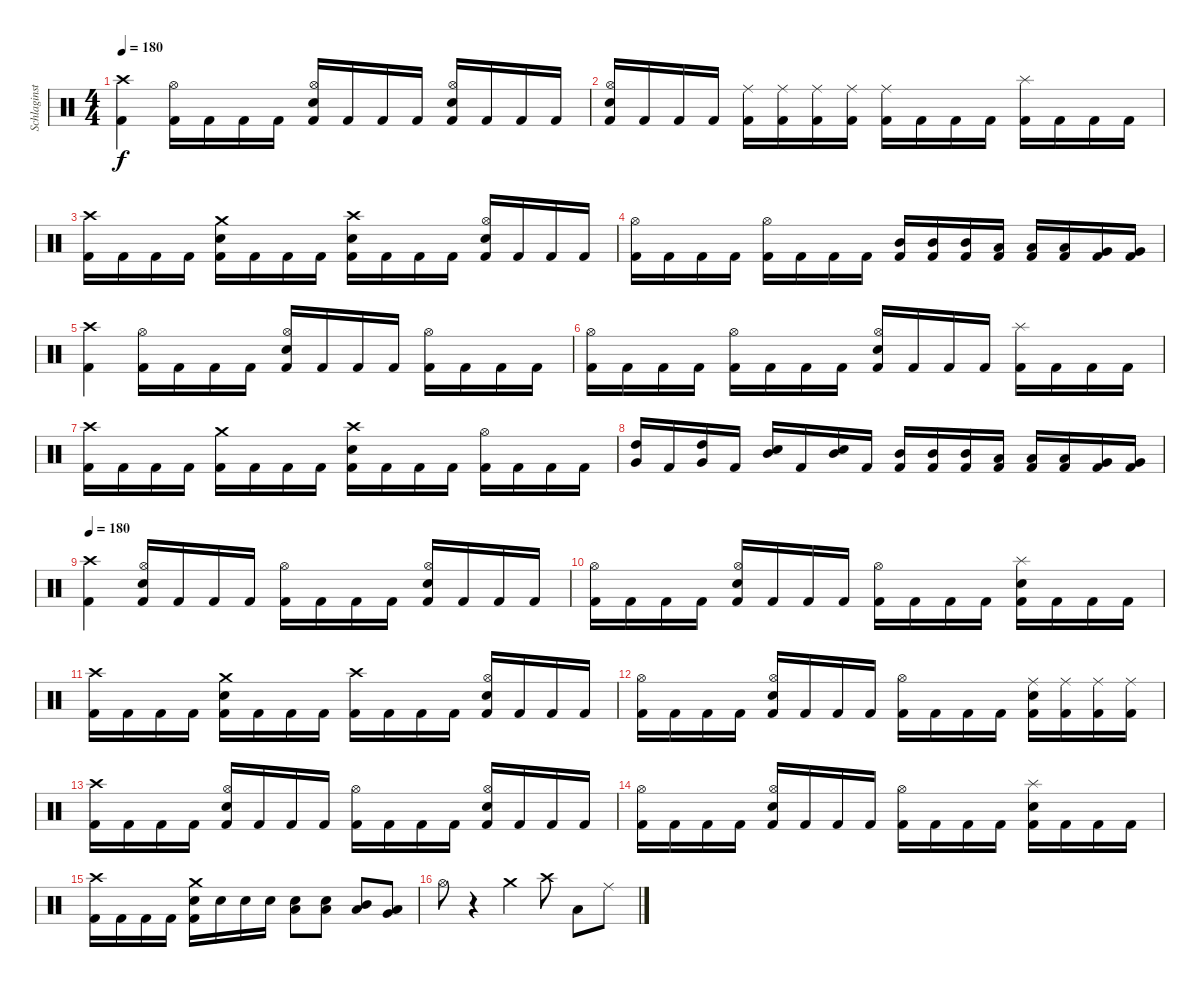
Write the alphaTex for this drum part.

\track ("Schlaginstrumente - Auswahl" "Schlaginst") {instrument percussion}
\staff {score}
\articulation defaults
\ts (4 4)
\tempo 180
\clef neutral
\ks c
("Crash high (hit)" "Kick (hit) 2").4{dy f} ("Hi-Hat (open)" "Kick (hit) 2").16 "Kick (hit) 2".16 "Kick (hit) 2".16 "Kick (hit) 2".16 ("Hi-Hat (open)" "Electric Snare (hit)" "Kick (hit) 2").16 "Kick (hit) 2".16 "Kick (hit) 2".16 "Kick (hit) 2".16 ("Hi-Hat (open)" "Electric Snare (hit)" "Kick (hit) 2").16 "Kick (hit) 2".16 "Kick (hit) 2".16 "Kick (hit) 2".16 |
("Hi-Hat (open)" "Electric Snare (hit)" "Kick (hit) 2").16 "Kick (hit) 2".16 "Kick (hit) 2".16 "Kick (hit) 2".16 ("Ride (middle)" "Kick (hit) 2").16 ("Ride (middle)" "Kick (hit) 2").16 ("Ride (middle)" "Kick (hit) 2").16 ("Ride (middle)" "Kick (hit) 2").16 ("Ride (middle)" "Kick (hit) 2").16 "Kick (hit) 2".16 "Kick (hit) 2".16 "Kick (hit) 2".16 ("Splash (hit)" "Kick (hit) 2").16 "Kick (hit) 2".16 "Kick (hit) 2".16 "Kick (hit) 2".16 |
("Crash high (hit)" "Kick (hit) 2").16 "Kick (hit) 2".16 "Kick (hit) 2".16 "Kick (hit) 2".16 ("Crash medium (hit)" "Electric Snare (hit)" "Kick (hit) 2").16 "Kick (hit) 2".16 "Kick (hit) 2".16 "Kick (hit) 2".16 ("Crash high (hit)" "Electric Snare (hit)" "Kick (hit) 2").16 "Kick (hit) 2".16 "Kick (hit) 2".16 "Kick (hit) 2".16 ("Hi-Hat (open)" "Electric Snare (hit)" "Kick (hit) 2").16 "Kick (hit) 2".16 "Kick (hit) 2".16 "Kick (hit) 2".16 |
("Hi-Hat (open)" "Kick (hit) 2").16 "Kick (hit) 2".16 "Kick (hit) 2".16 "Kick (hit) 2".16 ("Hi-Hat (open)" "Kick (hit) 2").16 "Kick (hit) 2".16 "Kick (hit) 2".16 "Kick (hit) 2".16 ("Mid Tom (hit)" "Kick (hit) 2").16 ("Mid Tom (hit)" "Kick (hit) 2").16 ("Mid Tom (hit)" "Kick (hit) 2").16 ("Low Tom (hit)" "Kick (hit) 2").16 ("Low Tom (hit)" "Kick (hit) 2").16 ("Low Tom (hit)" "Kick (hit) 2").16 ("Very Low Tom (hit)" "Kick (hit) 2").16 ("Very Low Tom (hit)" "Kick (hit) 2").16 |
("Crash high (hit)" "Kick (hit) 2").4 ("Hi-Hat (open)" "Kick (hit) 2").16 "Kick (hit) 2".16 "Kick (hit) 2".16 "Kick (hit) 2".16 ("Hi-Hat (open)" "Electric Snare (hit)" "Kick (hit) 2").16 "Kick (hit) 2".16 "Kick (hit) 2".16 "Kick (hit) 2".16 ("Hi-Hat (open)" "Kick (hit) 2").16 "Kick (hit) 2".16 "Kick (hit) 2".16 "Kick (hit) 2".16 |
("Hi-Hat (open)" "Kick (hit) 2").16 "Kick (hit) 2".16 "Kick (hit) 2".16 "Kick (hit) 2".16 ("Hi-Hat (open)" "Kick (hit) 2").16 "Kick (hit) 2".16 "Kick (hit) 2".16 "Kick (hit) 2".16 ("Hi-Hat (open)" "Electric Snare (hit)" "Kick (hit) 2").16 "Kick (hit) 2".16 "Kick (hit) 2".16 "Kick (hit) 2".16 ("Splash (hit)" "Kick (hit) 2").16 "Kick (hit) 2".16 "Kick (hit) 2".16 "Kick (hit) 2".16 |
("Crash high (hit)" "Kick (hit) 2").16 "Kick (hit) 2".16 "Kick (hit) 2".16 "Kick (hit) 2".16 ("Crash medium (hit)" "Kick (hit) 2").16 "Kick (hit) 2".16 "Kick (hit) 2".16 "Kick (hit) 2".16 ("Crash high (hit)" "Electric Snare (hit)" "Kick (hit) 2").16 "Kick (hit) 2".16 "Kick (hit) 2".16 "Kick (hit) 2".16 ("Hi-Hat (open)" "Kick (hit) 2").16 "Kick (hit) 2".16 "Kick (hit) 2".16 "Kick (hit) 2".16 |
("High Tom (hit)" "Very Low Tom (hit)").16 "Kick (hit) 2".16 ("High Tom (hit)" "Very Low Tom (hit)").16 "Kick (hit) 2".16 ("Mid Tom (hit)" "Electric Snare (hit)").16 "Kick (hit) 2".16 ("Mid Tom (hit)" "Electric Snare (hit)").16 "Kick (hit) 2".16 ("Mid Tom (hit)" "Kick (hit) 2").16 ("Mid Tom (hit)" "Kick (hit) 2").16 ("Mid Tom (hit)" "Kick (hit) 2").16 ("Low Tom (hit)" "Kick (hit) 2").16 ("Low Tom (hit)" "Kick (hit) 2").16 ("Low Tom (hit)" "Kick (hit) 2").16 ("Very Low Tom (hit)" "Kick (hit) 2").16 ("Very Low Tom (hit)" "Kick (hit) 2").16 |
\tempo 180
("Crash high (hit)" "Kick (hit) 2").4 ("Hi-Hat (open)" "Electric Snare (hit)" "Kick (hit) 2").16 "Kick (hit) 2".16 "Kick (hit) 2".16 "Kick (hit) 2".16 ("Hi-Hat (open)" "Kick (hit) 2").16 "Kick (hit) 2".16 "Kick (hit) 2".16 "Kick (hit) 2".16 ("Hi-Hat (open)" "Electric Snare (hit)" "Kick (hit) 2").16 "Kick (hit) 2".16 "Kick (hit) 2".16 "Kick (hit) 2".16 |
("Hi-Hat (open)" "Kick (hit) 2").16 "Kick (hit) 2".16 "Kick (hit) 2".16 "Kick (hit) 2".16 ("Hi-Hat (open)" "Electric Snare (hit)" "Kick (hit) 2").16 "Kick (hit) 2".16 "Kick (hit) 2".16 "Kick (hit) 2".16 ("Hi-Hat (open)" "Kick (hit) 2").16 "Kick (hit) 2".16 "Kick (hit) 2".16 "Kick (hit) 2".16 ("Splash (hit)" "Electric Snare (hit)" "Kick (hit) 2").16 "Kick (hit) 2".16 "Kick (hit) 2".16 "Kick (hit) 2".16 |
("Crash high (hit)" "Kick (hit) 2").16 "Kick (hit) 2".16 "Kick (hit) 2".16 "Kick (hit) 2".16 ("Crash medium (hit)" "Electric Snare (hit)" "Kick (hit) 2").16 "Kick (hit) 2".16 "Kick (hit) 2".16 "Kick (hit) 2".16 ("Crash high (hit)" "Kick (hit) 2").16 "Kick (hit) 2".16 "Kick (hit) 2".16 "Kick (hit) 2".16 ("Hi-Hat (open)" "Electric Snare (hit)" "Kick (hit) 2").16 "Kick (hit) 2".16 "Kick (hit) 2".16 "Kick (hit) 2".16 |
("Hi-Hat (open)" "Kick (hit) 2").16 "Kick (hit) 2".16 "Kick (hit) 2".16 "Kick (hit) 2".16 ("Hi-Hat (open)" "Electric Snare (hit)" "Kick (hit) 2").16 "Kick (hit) 2".16 "Kick (hit) 2".16 "Kick (hit) 2".16 ("Hi-Hat (open)" "Kick (hit) 2").16 "Kick (hit) 2".16 "Kick (hit) 2".16 "Kick (hit) 2".16 ("Ride (middle)" "Electric Snare (hit)" "Kick (hit) 2").16 ("Ride (middle)" "Kick (hit) 2").16 ("Ride (middle)" "Kick (hit) 2").16 ("Ride (middle)" "Kick (hit) 2").16 |
("Crash high (hit)" "Kick (hit) 2").16 "Kick (hit) 2".16 "Kick (hit) 2".16 "Kick (hit) 2".16 ("Hi-Hat (open)" "Electric Snare (hit)" "Kick (hit) 2").16 "Kick (hit) 2".16 "Kick (hit) 2".16 "Kick (hit) 2".16 ("Hi-Hat (open)" "Kick (hit) 2").16 "Kick (hit) 2".16 "Kick (hit) 2".16 "Kick (hit) 2".16 ("Hi-Hat (open)" "Electric Snare (hit)" "Kick (hit) 2").16 "Kick (hit) 2".16 "Kick (hit) 2".16 "Kick (hit) 2".16 |
("Hi-Hat (open)" "Kick (hit) 2").16 "Kick (hit) 2".16 "Kick (hit) 2".16 "Kick (hit) 2".16 ("Hi-Hat (open)" "Electric Snare (hit)" "Kick (hit) 2").16 "Kick (hit) 2".16 "Kick (hit) 2".16 "Kick (hit) 2".16 ("Hi-Hat (open)" "Kick (hit) 2").16 "Kick (hit) 2".16 "Kick (hit) 2".16 "Kick (hit) 2".16 ("Splash (hit)" "Electric Snare (hit)" "Kick (hit) 2").16 "Kick (hit) 2".16 "Kick (hit) 2".16 "Kick (hit) 2".16 |
("Crash high (hit)" "Kick (hit) 2").16 "Kick (hit) 2".16 "Kick (hit) 2".16 "Kick (hit) 2".16 ("Crash medium (hit)" "Electric Snare (hit)" "Kick (hit) 2").16 "Electric Snare (hit)".16 "Electric Snare (hit)".16 "Electric Snare (hit)".16 ("Low Tom (hit)" "Electric Snare (hit)").8 ("Low Tom (hit)" "Electric Snare (hit)").8 ("Mid Tom (hit)" "Low Tom (hit)").8 ("Low Tom (hit)" "Very Low Tom (hit)").8 |
"Hi-Hat (open)".8 r.4 "Crash medium (hit)".4 "Crash high (hit)".8 "Low Tom (hit)".8 "Ride (middle)".8
